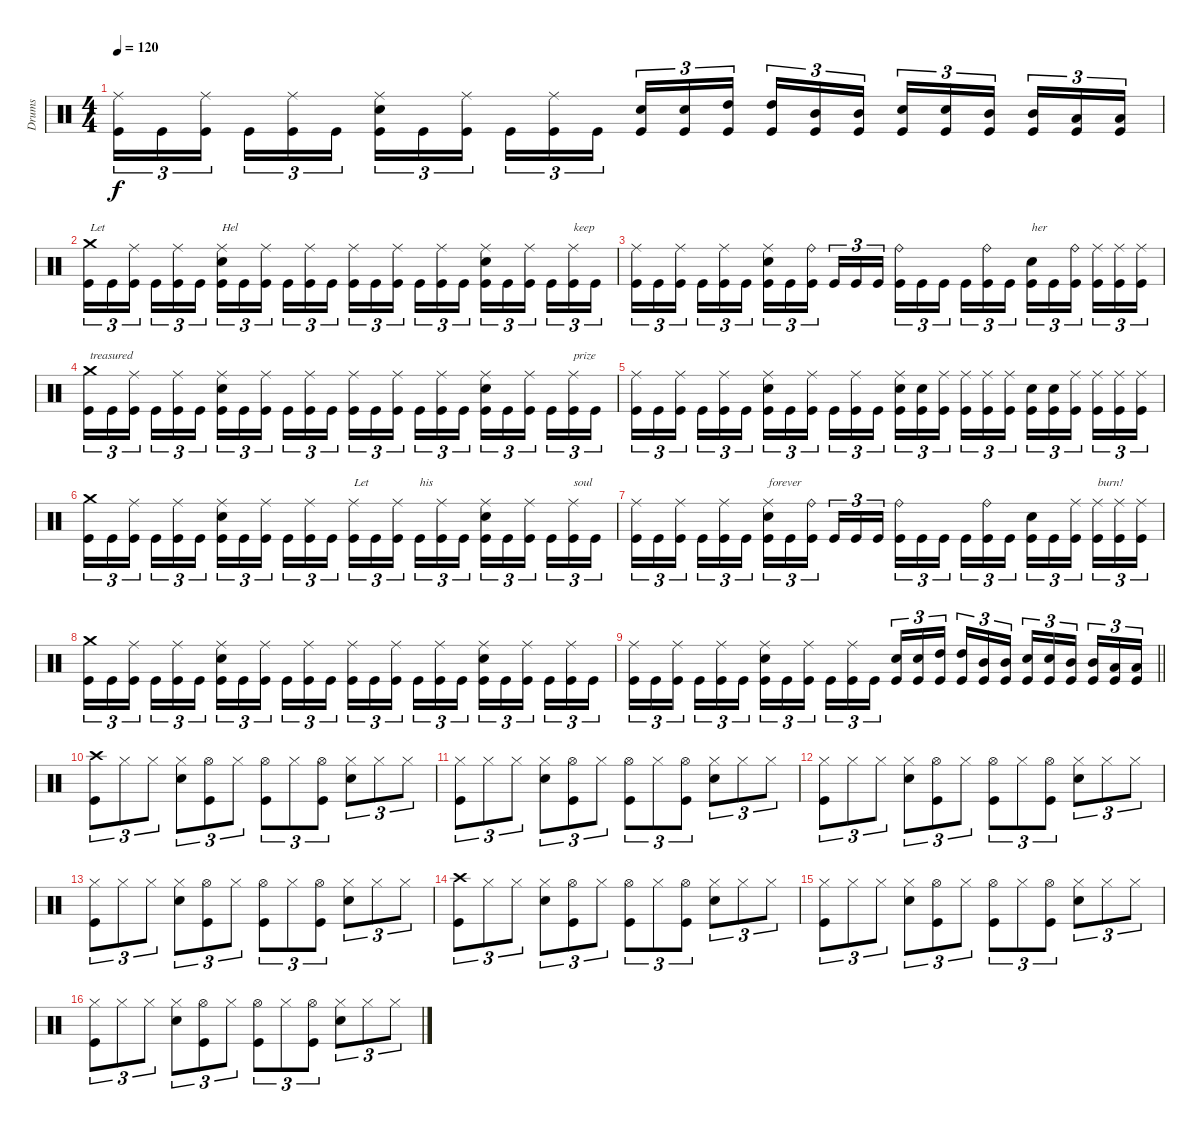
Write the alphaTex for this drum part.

\track ("Drums" "Drums") {instrument percussion}
\staff {score}
\articulation defaults
\ts (4 4)
\tempo 120
\clef neutral
\ks c
("Ride (middle)" "Kick (hit)").16{tu (3 2) dy f} "Kick (hit)".16{tu (3 2)} ("Ride (middle)" "Kick (hit)").16{tu (3 2) beam splitsecondary} "Kick (hit)".16{tu (3 2)} ("Ride (middle)" "Kick (hit)").16{tu (3 2)} "Kick (hit)".16{tu (3 2)} ("Ride (middle)" "Snare (hit) 2" "Kick (hit)").16{tu (3 2)} "Kick (hit)".16{tu (3 2)} ("Ride (middle)" "Kick (hit)").16{tu (3 2) beam splitsecondary} "Kick (hit)".16{tu (3 2)} ("Ride (middle)" "Kick (hit)").16{tu (3 2)} "Kick (hit)".16{tu (3 2)} ("Snare (hit) 2" "Kick (hit)").16{tu (3 2)} ("Snare (hit) 2" "Kick (hit)").16{tu (3 2)} ("High Tom (hit)" "Kick (hit)").16{tu (3 2) beam splitsecondary} ("High Tom (hit)" "Kick (hit)").16{tu (3 2)} ("Mid Tom (hit)" "Kick (hit)").16{tu (3 2)} ("Mid Tom (hit)" "Kick (hit)").16{tu (3 2)} ("Snare (hit) 2" "Kick (hit)").16{tu (3 2)} ("Snare (hit) 2" "Kick (hit)").16{tu (3 2)} ("Mid Tom (hit)" "Kick (hit)").16{tu (3 2) beam splitsecondary} ("Mid Tom (hit)" "Kick (hit)").16{tu (3 2)} ("Low Tom (hit)" "Kick (hit)").16{tu (3 2)} ("Low Tom (hit)" "Kick (hit)").16{tu (3 2)} |
("Crash medium (hit)" "Kick (hit)").16{tu (3 2) txt "Let"} "Kick (hit)".16{tu (3 2)} ("Ride (middle)" "Kick (hit)").16{tu (3 2) beam splitsecondary} "Kick (hit)".16{tu (3 2)} ("Ride (middle)" "Kick (hit)").16{tu (3 2)} "Kick (hit)".16{tu (3 2)} ("Ride (middle)" "Snare (hit) 2" "Kick (hit)").16{tu (3 2) txt "Hel"} "Kick (hit)".16{tu (3 2)} ("Ride (middle)" "Kick (hit)").16{tu (3 2) beam splitsecondary} "Kick (hit)".16{tu (3 2)} ("Ride (middle)" "Kick (hit)").16{tu (3 2)} "Kick (hit)".16{tu (3 2)} ("Ride (middle)" "Kick (hit)").16{tu (3 2)} "Kick (hit)".16{tu (3 2)} ("Ride (middle)" "Kick (hit)").16{tu (3 2) beam splitsecondary} "Kick (hit)".16{tu (3 2)} ("Ride (middle)" "Kick (hit)").16{tu (3 2)} "Kick (hit)".16{tu (3 2)} ("Ride (middle)" "Snare (hit) 2" "Kick (hit)").16{tu (3 2)} "Kick (hit)".16{tu (3 2)} ("Ride (middle)" "Kick (hit)").16{tu (3 2) beam splitsecondary} "Kick (hit)".16{tu (3 2)} ("Ride (middle)" "Kick (hit)").16{tu (3 2) txt "keep"} "Kick (hit)".16{tu (3 2)} |
("Ride (middle)" "Kick (hit)").16{tu (3 2)} "Kick (hit)".16{tu (3 2)} ("Ride (middle)" "Kick (hit)").16{tu (3 2) beam splitsecondary} "Kick (hit)".16{tu (3 2)} ("Ride (middle)" "Kick (hit)").16{tu (3 2)} "Kick (hit)".16{tu (3 2)} ("Ride (middle)" "Snare (hit) 2" "Kick (hit)").16{tu (3 2)} "Kick (hit)".16{tu (3 2)} ("Ride (bell)" "Kick (hit)").16{tu (3 2) beam splitsecondary} "Kick (hit)".16{tu (3 2)} "Kick (hit)".16{tu (3 2)} "Kick (hit)".16{tu (3 2)} ("Ride (bell)" "Kick (hit)").16{tu (3 2)} "Kick (hit)".16{tu (3 2)} "Kick (hit)".16{tu (3 2) beam splitsecondary} "Kick (hit)".16{tu (3 2)} ("Ride (bell)" "Kick (hit)").16{tu (3 2)} "Kick (hit)".16{tu (3 2)} ("Snare (hit) 2" "Kick (hit)").16{tu (3 2) txt "her"} "Kick (hit)".16{tu (3 2)} ("Ride (bell)" "Kick (hit)").16{tu (3 2) beam splitsecondary} ("Ride (middle)" "Kick (hit)").16{tu (3 2)} ("Ride (middle)" "Kick (hit)").16{tu (3 2)} ("Ride (middle)" "Kick (hit)").16{tu (3 2)} |
("Crash medium (hit)" "Kick (hit)").16{tu (3 2) txt "treasured"} "Kick (hit)".16{tu (3 2)} ("Ride (middle)" "Kick (hit)").16{tu (3 2) beam splitsecondary} "Kick (hit)".16{tu (3 2)} ("Ride (middle)" "Kick (hit)").16{tu (3 2)} "Kick (hit)".16{tu (3 2)} ("Ride (middle)" "Snare (hit) 2" "Kick (hit)").16{tu (3 2)} "Kick (hit)".16{tu (3 2)} ("Ride (middle)" "Kick (hit)").16{tu (3 2) beam splitsecondary} "Kick (hit)".16{tu (3 2)} ("Ride (middle)" "Kick (hit)").16{tu (3 2)} "Kick (hit)".16{tu (3 2)} ("Ride (middle)" "Kick (hit)").16{tu (3 2)} "Kick (hit)".16{tu (3 2)} ("Ride (middle)" "Kick (hit)").16{tu (3 2) beam splitsecondary} "Kick (hit)".16{tu (3 2)} ("Ride (middle)" "Kick (hit)").16{tu (3 2)} "Kick (hit)".16{tu (3 2)} ("Ride (middle)" "Snare (hit) 2" "Kick (hit)").16{tu (3 2)} "Kick (hit)".16{tu (3 2)} ("Ride (middle)" "Kick (hit)").16{tu (3 2) beam splitsecondary} "Kick (hit)".16{tu (3 2)} ("Ride (middle)" "Kick (hit)").16{tu (3 2) txt "prize"} "Kick (hit)".16{tu (3 2)} |
("Ride (middle)" "Kick (hit)").16{tu (3 2)} "Kick (hit)".16{tu (3 2)} ("Ride (middle)" "Kick (hit)").16{tu (3 2) beam splitsecondary} "Kick (hit)".16{tu (3 2)} ("Ride (middle)" "Kick (hit)").16{tu (3 2)} "Kick (hit)".16{tu (3 2)} ("Ride (middle)" "Snare (hit) 2" "Kick (hit)").16{tu (3 2)} "Kick (hit)".16{tu (3 2)} ("Ride (middle)" "Kick (hit)").16{tu (3 2) beam splitsecondary} "Kick (hit)".16{tu (3 2)} ("Ride (middle)" "Kick (hit)").16{tu (3 2)} "Kick (hit)".16{tu (3 2)} ("Ride (middle)" "Snare (hit) 2" "Kick (hit)").16{tu (3 2)} ("Snare (hit) 2" "Kick (hit)").16{tu (3 2)} ("Ride (middle)" "Kick (hit)").16{tu (3 2) beam splitsecondary} ("Ride (middle)" "Kick (hit)").16{tu (3 2)} ("Ride (middle)" "Kick (hit)").16{tu (3 2)} ("Ride (middle)" "Kick (hit)").16{tu (3 2)} ("Snare (hit) 2" "Kick (hit)").16{tu (3 2)} ("Snare (hit) 2" "Kick (hit)").16{tu (3 2)} ("Ride (middle)" "Kick (hit)").16{tu (3 2) beam splitsecondary} ("Ride (middle)" "Kick (hit)").16{tu (3 2)} ("Ride (middle)" "Kick (hit)").16{tu (3 2)} ("Ride (middle)" "Kick (hit)").16{tu (3 2)} |
("Crash medium (hit)" "Kick (hit)").16{tu (3 2)} "Kick (hit)".16{tu (3 2)} ("Ride (middle)" "Kick (hit)").16{tu (3 2) beam splitsecondary} "Kick (hit)".16{tu (3 2)} ("Ride (middle)" "Kick (hit)").16{tu (3 2)} "Kick (hit)".16{tu (3 2)} ("Ride (middle)" "Snare (hit) 2" "Kick (hit)").16{tu (3 2)} "Kick (hit)".16{tu (3 2)} ("Ride (middle)" "Kick (hit)").16{tu (3 2) beam splitsecondary} "Kick (hit)".16{tu (3 2)} ("Ride (middle)" "Kick (hit)").16{tu (3 2)} "Kick (hit)".16{tu (3 2)} ("Ride (middle)" "Kick (hit)").16{tu (3 2) txt "Let"} "Kick (hit)".16{tu (3 2)} ("Ride (middle)" "Kick (hit)").16{tu (3 2) beam splitsecondary} "Kick (hit)".16{tu (3 2) txt "his"} ("Ride (middle)" "Kick (hit)").16{tu (3 2)} "Kick (hit)".16{tu (3 2)} ("Ride (middle)" "Snare (hit) 2" "Kick (hit)").16{tu (3 2)} "Kick (hit)".16{tu (3 2)} ("Ride (middle)" "Kick (hit)").16{tu (3 2) beam splitsecondary} "Kick (hit)".16{tu (3 2)} ("Ride (middle)" "Kick (hit)").16{tu (3 2) txt "soul"} "Kick (hit)".16{tu (3 2)} |
("Ride (middle)" "Kick (hit)").16{tu (3 2)} "Kick (hit)".16{tu (3 2)} ("Ride (middle)" "Kick (hit)").16{tu (3 2) beam splitsecondary} "Kick (hit)".16{tu (3 2)} ("Ride (middle)" "Kick (hit)").16{tu (3 2)} "Kick (hit)".16{tu (3 2)} ("Ride (middle)" "Snare (hit) 2" "Kick (hit)").16{tu (3 2) txt "forever"} "Kick (hit)".16{tu (3 2)} ("Ride (bell)" "Kick (hit)").16{tu (3 2) beam splitsecondary} "Kick (hit)".16{tu (3 2)} "Kick (hit)".16{tu (3 2)} "Kick (hit)".16{tu (3 2)} ("Ride (bell)" "Kick (hit)").16{tu (3 2)} "Kick (hit)".16{tu (3 2)} "Kick (hit)".16{tu (3 2) beam splitsecondary} "Kick (hit)".16{tu (3 2)} ("Ride (bell)" "Kick (hit)").16{tu (3 2)} "Kick (hit)".16{tu (3 2)} ("Snare (hit) 2" "Kick (hit)").16{tu (3 2)} "Kick (hit)".16{tu (3 2)} ("Ride (middle)" "Kick (hit)").16{tu (3 2) beam splitsecondary} ("Ride (middle)" "Kick (hit)").16{tu (3 2) txt "burn!"} ("Ride (middle)" "Kick (hit)").16{tu (3 2)} ("Ride (middle)" "Kick (hit)").16{tu (3 2)} |
("Crash medium (hit)" "Kick (hit)").16{tu (3 2)} "Kick (hit)".16{tu (3 2)} ("Ride (middle)" "Kick (hit)").16{tu (3 2) beam splitsecondary} "Kick (hit)".16{tu (3 2)} ("Ride (middle)" "Kick (hit)").16{tu (3 2)} "Kick (hit)".16{tu (3 2)} ("Ride (middle)" "Snare (hit) 2" "Kick (hit)").16{tu (3 2)} "Kick (hit)".16{tu (3 2)} ("Ride (middle)" "Kick (hit)").16{tu (3 2) beam splitsecondary} "Kick (hit)".16{tu (3 2)} ("Ride (middle)" "Kick (hit)").16{tu (3 2)} "Kick (hit)".16{tu (3 2)} ("Ride (middle)" "Kick (hit)").16{tu (3 2)} "Kick (hit)".16{tu (3 2)} ("Ride (middle)" "Kick (hit)").16{tu (3 2) beam splitsecondary} "Kick (hit)".16{tu (3 2)} ("Ride (middle)" "Kick (hit)").16{tu (3 2)} "Kick (hit)".16{tu (3 2)} ("Ride (middle)" "Snare (hit) 2" "Kick (hit)").16{tu (3 2)} "Kick (hit)".16{tu (3 2)} ("Ride (middle)" "Kick (hit)").16{tu (3 2) beam splitsecondary} "Kick (hit)".16{tu (3 2)} ("Ride (middle)" "Kick (hit)").16{tu (3 2)} "Kick (hit)".16{tu (3 2)} |
\barLineRight lightlight
("Ride (middle)" "Kick (hit)").16{tu (3 2)} "Kick (hit)".16{tu (3 2)} ("Ride (middle)" "Kick (hit)").16{tu (3 2) beam splitsecondary} "Kick (hit)".16{tu (3 2)} ("Ride (middle)" "Kick (hit)").16{tu (3 2)} "Kick (hit)".16{tu (3 2)} ("Ride (middle)" "Snare (hit) 2" "Kick (hit)").16{tu (3 2)} "Kick (hit)".16{tu (3 2)} ("Ride (middle)" "Kick (hit)").16{tu (3 2) beam splitsecondary} "Kick (hit)".16{tu (3 2)} ("Ride (middle)" "Kick (hit)").16{tu (3 2)} "Kick (hit)".16{tu (3 2)} ("Snare (hit) 2" "Kick (hit)").16{tu (3 2)} ("Snare (hit) 2" "Kick (hit)").16{tu (3 2)} ("High Tom (hit)" "Kick (hit)").16{tu (3 2) beam splitsecondary} ("High Tom (hit)" "Kick (hit)").16{tu (3 2)} ("Mid Tom (hit)" "Kick (hit)").16{tu (3 2)} ("Mid Tom (hit)" "Kick (hit)").16{tu (3 2)} ("Snare (hit) 2" "Kick (hit)").16{tu (3 2)} ("Snare (hit) 2" "Kick (hit)").16{tu (3 2)} ("Mid Tom (hit)" "Kick (hit)").16{tu (3 2) beam splitsecondary} ("Mid Tom (hit)" "Kick (hit)").16{tu (3 2)} ("Low Tom (hit)" "Kick (hit)").16{tu (3 2)} ("Low Tom (hit)" "Kick (hit)").16{tu (3 2)} |
\section ("" "")
("Crash high (hit)" "Kick (hit)").8{tu (3 2)} "Hi-Hat (closed)".8{tu (3 2)} "Hi-Hat (closed)".8{tu (3 2)} ("Hi-Hat (closed)" "Snare (hit) 2").8{tu (3 2)} ("Hi-Hat (open)" "Kick (hit)").8{tu (3 2)} "Hi-Hat (closed)".8{tu (3 2)} ("Hi-Hat (open)" "Kick (hit)").8{tu (3 2)} "Hi-Hat (closed)".8{tu (3 2)} ("Hi-Hat (open)" "Kick (hit)").8{tu (3 2)} ("Hi-Hat (closed)" "Snare (hit) 2").8{tu (3 2)} "Hi-Hat (closed)".8{tu (3 2)} "Hi-Hat (closed)".8{tu (3 2)} |
("Hi-Hat (closed)" "Kick (hit)").8{tu (3 2)} "Hi-Hat (closed)".8{tu (3 2)} "Hi-Hat (closed)".8{tu (3 2)} ("Hi-Hat (closed)" "Snare (hit) 2").8{tu (3 2)} ("Hi-Hat (open)" "Kick (hit)").8{tu (3 2)} "Hi-Hat (closed)".8{tu (3 2)} ("Hi-Hat (open)" "Kick (hit)").8{tu (3 2)} "Hi-Hat (closed)".8{tu (3 2)} ("Hi-Hat (open)" "Kick (hit)").8{tu (3 2)} ("Hi-Hat (closed)" "Snare (hit) 2").8{tu (3 2)} "Hi-Hat (closed)".8{tu (3 2)} "Hi-Hat (closed)".8{tu (3 2)} |
("Hi-Hat (closed)" "Kick (hit)").8{tu (3 2)} "Hi-Hat (closed)".8{tu (3 2)} "Hi-Hat (closed)".8{tu (3 2)} ("Hi-Hat (closed)" "Snare (hit) 2").8{tu (3 2)} ("Hi-Hat (open)" "Kick (hit)").8{tu (3 2)} "Hi-Hat (closed)".8{tu (3 2)} ("Hi-Hat (open)" "Kick (hit)").8{tu (3 2)} "Hi-Hat (closed)".8{tu (3 2)} ("Hi-Hat (open)" "Kick (hit)").8{tu (3 2)} ("Hi-Hat (closed)" "Snare (hit) 2").8{tu (3 2)} "Hi-Hat (closed)".8{tu (3 2)} "Hi-Hat (closed)".8{tu (3 2)} |
("Hi-Hat (closed)" "Kick (hit)").8{tu (3 2)} "Hi-Hat (closed)".8{tu (3 2)} "Hi-Hat (closed)".8{tu (3 2)} ("Hi-Hat (closed)" "Snare (hit) 2").8{tu (3 2)} ("Hi-Hat (open)" "Kick (hit)").8{tu (3 2)} "Hi-Hat (closed)".8{tu (3 2)} ("Hi-Hat (open)" "Kick (hit)").8{tu (3 2)} "Hi-Hat (closed)".8{tu (3 2)} ("Hi-Hat (open)" "Kick (hit)").8{tu (3 2)} ("Hi-Hat (closed)" "Snare (hit) 2").8{tu (3 2)} "Hi-Hat (closed)".8{tu (3 2)} "Hi-Hat (closed)".8{tu (3 2)} |
("Crash high (hit)" "Kick (hit)").8{tu (3 2)} "Hi-Hat (closed)".8{tu (3 2)} "Hi-Hat (closed)".8{tu (3 2)} ("Hi-Hat (closed)" "Snare (hit) 2").8{tu (3 2)} ("Hi-Hat (open)" "Kick (hit)").8{tu (3 2)} "Hi-Hat (closed)".8{tu (3 2)} ("Hi-Hat (open)" "Kick (hit)").8{tu (3 2)} "Hi-Hat (closed)".8{tu (3 2)} ("Hi-Hat (open)" "Kick (hit)").8{tu (3 2)} ("Hi-Hat (closed)" "Snare (hit) 2").8{tu (3 2)} "Hi-Hat (closed)".8{tu (3 2)} "Hi-Hat (closed)".8{tu (3 2)} |
("Hi-Hat (closed)" "Kick (hit)").8{tu (3 2)} "Hi-Hat (closed)".8{tu (3 2)} "Hi-Hat (closed)".8{tu (3 2)} ("Hi-Hat (closed)" "Snare (hit) 2").8{tu (3 2)} ("Hi-Hat (open)" "Kick (hit)").8{tu (3 2)} "Hi-Hat (closed)".8{tu (3 2)} ("Hi-Hat (open)" "Kick (hit)").8{tu (3 2)} "Hi-Hat (closed)".8{tu (3 2)} ("Hi-Hat (open)" "Kick (hit)").8{tu (3 2)} ("Hi-Hat (closed)" "Snare (hit) 2").8{tu (3 2)} "Hi-Hat (closed)".8{tu (3 2)} "Hi-Hat (closed)".8{tu (3 2)} |
("Hi-Hat (closed)" "Kick (hit)").8{tu (3 2)} "Hi-Hat (closed)".8{tu (3 2)} "Hi-Hat (closed)".8{tu (3 2)} ("Hi-Hat (closed)" "Snare (hit) 2").8{tu (3 2)} ("Hi-Hat (open)" "Kick (hit)").8{tu (3 2)} "Hi-Hat (closed)".8{tu (3 2)} ("Hi-Hat (open)" "Kick (hit)").8{tu (3 2)} "Hi-Hat (closed)".8{tu (3 2)} ("Hi-Hat (open)" "Kick (hit)").8{tu (3 2)} ("Hi-Hat (closed)" "Snare (hit) 2").8{tu (3 2)} "Hi-Hat (closed)".8{tu (3 2)} "Hi-Hat (closed)".8{tu (3 2)}
